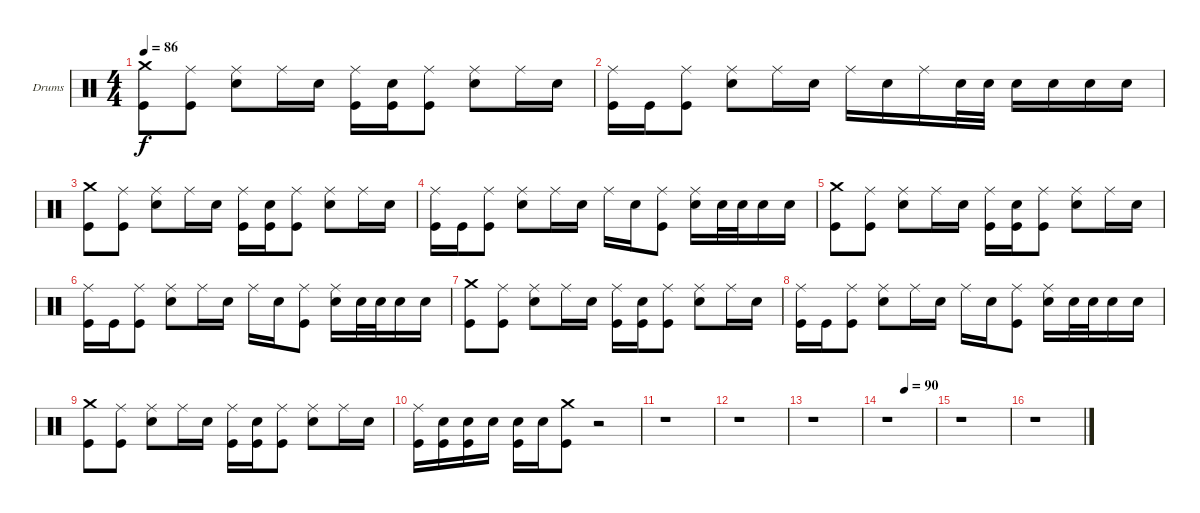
\defaultSystemsLayout 4
\bracketExtendMode groupsimilarinstruments
\firstSystemTrackNameOrientation horizontal
\otherSystemsTrackNameOrientation horizontal
\track ("Drumkit" "Drums") {instrument percussion}
\staff {score}
\articulation defaults
\ts (4 4)
\tempo 86
\clef neutral
\ks c
("Crash medium (hit)" "Kick (hit)").8{dy f} ("Ride (middle)" "Kick (hit)").8 ("Ride (middle)" "Snare (hit) 2").8 "Ride (middle)".16 "Snare (hit) 2".16 ("Ride (middle)" "Kick (hit)").16 ("Snare (hit) 2" "Kick (hit)").16 ("Ride (middle)" "Kick (hit)").8 ("Ride (middle)" "Snare (hit) 2").8 "Ride (middle)".16 "Snare (hit) 2".16 |
("Ride (middle)" "Kick (hit)").16 "Kick (hit)".16 ("Ride (middle)" "Kick (hit)").8 ("Ride (middle)" "Snare (hit) 2").8 "Ride (middle)".16 "Snare (hit) 2".16 "Ride (middle)".16 "Snare (hit) 2".16 "Ride (middle)".16 "Snare (hit) 2".32 "Snare (hit) 2".32 "Snare (hit) 2".16 "Snare (hit) 2".16 "Snare (hit) 2".16 "Snare (hit) 2".16 |
("Crash medium (hit)" "Kick (hit)").8 ("Ride (middle)" "Kick (hit)").8 ("Ride (middle)" "Snare (hit) 2").8 "Ride (middle)".16 "Snare (hit) 2".16 ("Ride (middle)" "Kick (hit)").16 ("Snare (hit) 2" "Kick (hit)").16 ("Ride (middle)" "Kick (hit)").8 ("Ride (middle)" "Snare (hit) 2").8 "Ride (middle)".16 "Snare (hit) 2".16 |
("Ride (middle)" "Kick (hit)").16 "Kick (hit)".16 ("Ride (middle)" "Kick (hit)").8 ("Ride (middle)" "Snare (hit) 2").8 "Ride (middle)".16 "Snare (hit) 2".16 "Ride (middle)".16 "Snare (hit) 2".16 ("Ride (middle)" "Kick (hit)").8 ("Ride (middle)" "Snare (hit) 2").16 "Snare (hit) 2".32 "Snare (hit) 2".32 "Snare (hit) 2".16 "Snare (hit) 2".16 |
("Crash medium (hit)" "Kick (hit)").8 ("Ride (middle)" "Kick (hit)").8 ("Ride (middle)" "Snare (hit) 2").8 "Ride (middle)".16 "Snare (hit) 2".16 ("Ride (middle)" "Kick (hit)").16 ("Snare (hit) 2" "Kick (hit)").16 ("Ride (middle)" "Kick (hit)").8 ("Ride (middle)" "Snare (hit) 2").8 "Ride (middle)".16 "Snare (hit) 2".16 |
("Ride (middle)" "Kick (hit)").16 "Kick (hit)".16 ("Ride (middle)" "Kick (hit)").8 ("Ride (middle)" "Snare (hit) 2").8 "Ride (middle)".16 "Snare (hit) 2".16 "Ride (middle)".16 "Snare (hit) 2".16 ("Ride (middle)" "Kick (hit)").8 ("Ride (middle)" "Snare (hit) 2").16 "Snare (hit) 2".32 "Snare (hit) 2".32 "Snare (hit) 2".16 "Snare (hit) 2".16 |
("Crash medium (hit)" "Kick (hit)").8 ("Ride (middle)" "Kick (hit)").8 ("Ride (middle)" "Snare (hit) 2").8 "Ride (middle)".16 "Snare (hit) 2".16 ("Ride (middle)" "Kick (hit)").16 ("Snare (hit) 2" "Kick (hit)").16 ("Ride (middle)" "Kick (hit)").8 ("Ride (middle)" "Snare (hit) 2").8 "Ride (middle)".16 "Snare (hit) 2".16 |
("Ride (middle)" "Kick (hit)").16 "Kick (hit)".16 ("Ride (middle)" "Kick (hit)").8 ("Ride (middle)" "Snare (hit) 2").8 "Ride (middle)".16 "Snare (hit) 2".16 "Ride (middle)".16 "Snare (hit) 2".16 ("Ride (middle)" "Kick (hit)").8 ("Ride (middle)" "Snare (hit) 2").16 "Snare (hit) 2".32 "Snare (hit) 2".32 "Snare (hit) 2".16 "Snare (hit) 2".16 |
("Crash medium (hit)" "Kick (hit)").8 ("Ride (middle)" "Kick (hit)").8 ("Ride (middle)" "Snare (hit) 2").8 "Ride (middle)".16 "Snare (hit) 2".16 ("Ride (middle)" "Kick (hit)").16 ("Snare (hit) 2" "Kick (hit)").16 ("Ride (middle)" "Kick (hit)").8 ("Ride (middle)" "Snare (hit) 2").8 "Ride (middle)".16 "Snare (hit) 2".16 |
("Ride (middle)" "Kick (hit)").16 ("Snare (hit) 2" "Kick (hit)").16 ("Snare (hit) 2" "Kick (hit)").16 "Snare (hit) 2".16 ("Snare (hit) 2" "Kick (hit)").16 "Snare (hit) 2".16 ("Crash medium (hit)" "Kick (hit)").8 r.2 |
r.1 |
r.1 |
r.1 |
\tempo (90 0.375)
r.1 |
r.1 |
r.1
